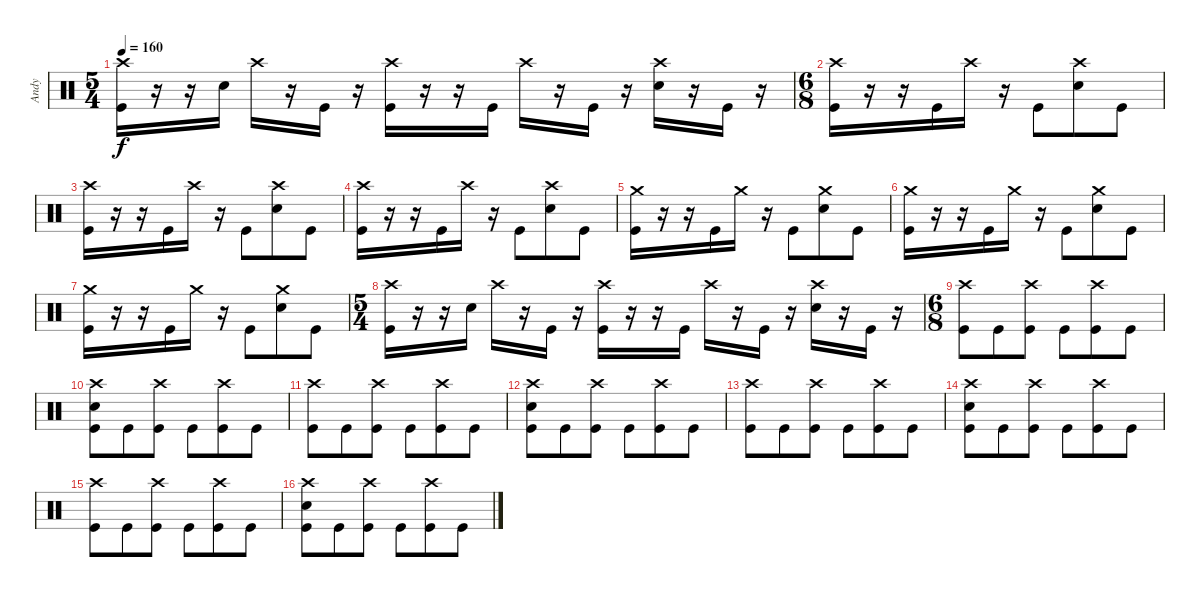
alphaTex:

\track ("Andy" "Andy") {instrument percussion}
\staff {score}
\articulation defaults
\ts (5 4)
\tempo 160
\clef neutral
\ks c
("Kick (hit)" "Crash high (hit)").16{dy f} r.16 r.16 "Snare (hit) 2".16 "Crash high (hit)".16 r.16 "Kick (hit)".16 r.16 ("Crash high (hit)" "Kick (hit)").16 r.16 r.16 "Kick (hit)".16 "Crash high (hit)".16 r.16 "Kick (hit)".16 r.16 ("Crash high (hit)" "Snare (hit) 2").16 r.16 "Kick (hit)".16 r.16 |
\ts (6 8)
("Crash high (hit)" "Kick (hit)").16 r.16 r.16 "Kick (hit)".16 "Crash high (hit)".16 r.16 "Kick (hit)".8 ("Snare (hit) 2" "Crash high (hit)").8 "Kick (hit)".8 |
("Crash high (hit)" "Kick (hit)").16 r.16 r.16 "Kick (hit)".16 "Crash high (hit)".16 r.16 "Kick (hit)".8 ("Snare (hit) 2" "Crash high (hit)").8 "Kick (hit)".8 |
("Crash high (hit)" "Kick (hit)").16 r.16 r.16 "Kick (hit)".16 "Crash high (hit)".16 r.16 "Kick (hit)".8 ("Snare (hit) 2" "Crash high (hit)").8 "Kick (hit)".8 |
("Crash medium (hit)" "Kick (hit)").16 r.16 r.16 "Kick (hit)".16 "Crash medium (hit)".16 r.16 "Kick (hit)".8 ("Snare (hit) 2" "Crash medium (hit)").8 "Kick (hit)".8 |
("Crash medium (hit)" "Kick (hit)").16 r.16 r.16 "Kick (hit)".16 "Crash medium (hit)".16 r.16 "Kick (hit)".8 ("Snare (hit) 2" "Crash medium (hit)").8 "Kick (hit)".8 |
("Crash medium (hit)" "Kick (hit)").16 r.16 r.16 "Kick (hit)".16 "Crash medium (hit)".16 r.16 "Kick (hit)".8 ("Snare (hit) 2" "Crash medium (hit)").8 "Kick (hit)".8 |
\ts (5 4)
("Kick (hit)" "Crash high (hit)").16 r.16 r.16 "Snare (hit) 2".16 "Crash high (hit)".16 r.16 "Kick (hit)".16 r.16 ("Crash high (hit)" "Kick (hit)").16 r.16 r.16 "Kick (hit)".16 "Crash high (hit)".16 r.16 "Kick (hit)".16 r.16 ("Crash high (hit)" "Snare (hit) 2").16 r.16 "Kick (hit)".16 r.16 |
\ts (6 8)
("Kick (hit)" "Crash high (hit)").8 "Kick (hit)".8 ("Kick (hit)" "Crash high (hit)").8 "Kick (hit)".8 ("Kick (hit)" "Crash high (hit)").8 "Kick (hit)".8 |
("Kick (hit)" "Crash high (hit)" "Snare (hit) 2").8 "Kick (hit)".8 ("Kick (hit)" "Crash high (hit)").8 "Kick (hit)".8 ("Kick (hit)" "Crash high (hit)").8 "Kick (hit)".8 |
("Kick (hit)" "Crash high (hit)").8 "Kick (hit)".8 ("Kick (hit)" "Crash high (hit)").8 "Kick (hit)".8 ("Kick (hit)" "Crash high (hit)").8 "Kick (hit)".8 |
("Kick (hit)" "Crash high (hit)" "Snare (hit) 2").8 "Kick (hit)".8 ("Kick (hit)" "Crash high (hit)").8 "Kick (hit)".8 ("Kick (hit)" "Crash high (hit)").8 "Kick (hit)".8 |
("Kick (hit)" "Crash high (hit)").8 "Kick (hit)".8 ("Kick (hit)" "Crash high (hit)").8 "Kick (hit)".8 ("Kick (hit)" "Crash high (hit)").8 "Kick (hit)".8 |
("Kick (hit)" "Crash high (hit)" "Snare (hit) 2").8 "Kick (hit)".8 ("Kick (hit)" "Crash high (hit)").8 "Kick (hit)".8 ("Kick (hit)" "Crash high (hit)").8 "Kick (hit)".8 |
("Kick (hit)" "Crash high (hit)").8 "Kick (hit)".8 ("Kick (hit)" "Crash high (hit)").8 "Kick (hit)".8 ("Kick (hit)" "Crash high (hit)").8 "Kick (hit)".8 |
("Kick (hit)" "Crash high (hit)" "Snare (hit) 2").8 "Kick (hit)".8 ("Kick (hit)" "Crash high (hit)").8 "Kick (hit)".8 ("Kick (hit)" "Crash high (hit)").8 "Kick (hit)".8
